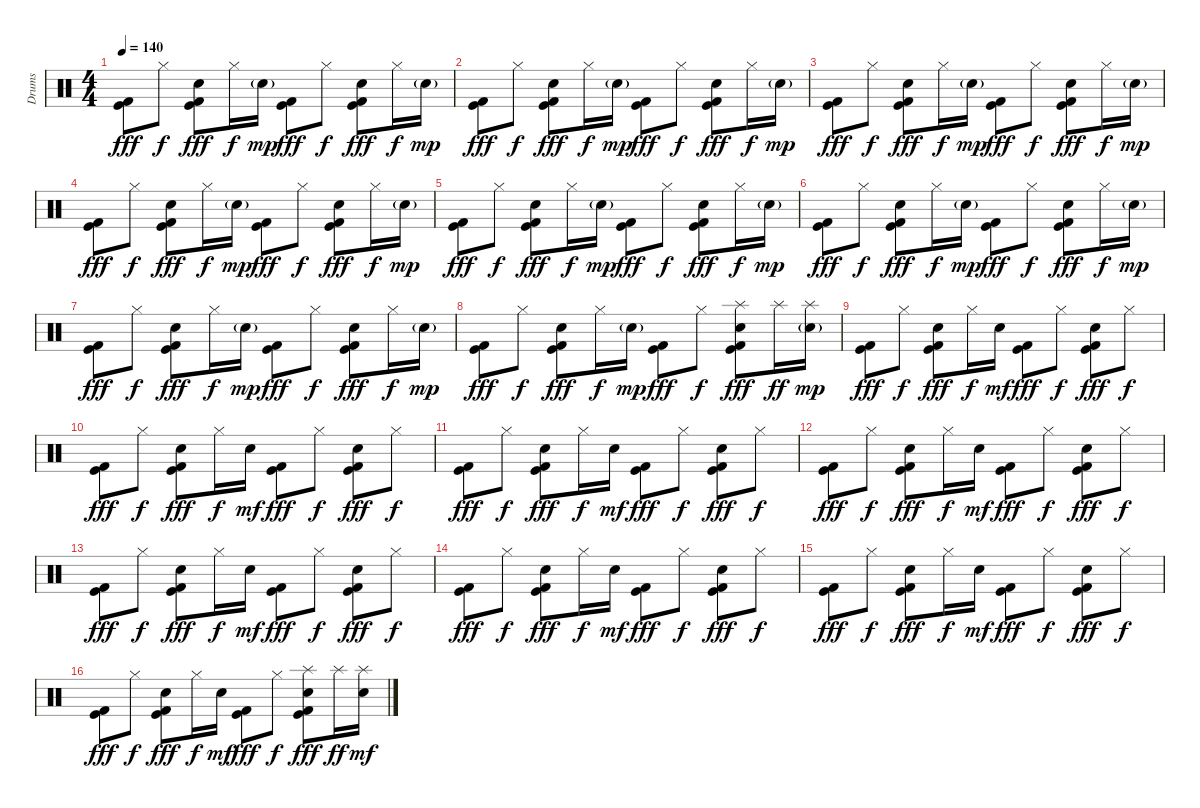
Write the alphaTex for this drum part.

\track ("Drums" "Drums") {instrument percussion}
\staff {score}
\articulation defaults
\ts (4 4)
\tempo 140
\clef neutral
\ks c
("Kick (hit) 2" "Kick (hit)").8{dy fff} "Hi-Hat (closed)".8{dy f} ("Hand Clap (hit)" "Kick (hit) 2" "Kick (hit)").8{dy fff} "Hi-Hat (closed)".16{dy f} "Hand Clap (hit)"{g}.16{dy mp} ("Kick (hit) 2" "Kick (hit)").8{dy fff} "Hi-Hat (closed)".8{dy f} ("Hand Clap (hit)" "Kick (hit) 2" "Kick (hit)").8{dy fff} "Hi-Hat (closed)".16{dy f} "Hand Clap (hit)"{g}.16{dy mp} |
("Kick (hit) 2" "Kick (hit)").8{dy fff} "Hi-Hat (closed)".8{dy f} ("Hand Clap (hit)" "Kick (hit) 2" "Kick (hit)").8{dy fff} "Hi-Hat (closed)".16{dy f} "Hand Clap (hit)"{g}.16{dy mp} ("Kick (hit) 2" "Kick (hit)").8{dy fff} "Hi-Hat (closed)".8{dy f} ("Hand Clap (hit)" "Kick (hit) 2" "Kick (hit)").8{dy fff} "Hi-Hat (closed)".16{dy f} "Hand Clap (hit)"{g}.16{dy mp} |
("Kick (hit) 2" "Kick (hit)").8{dy fff} "Hi-Hat (closed)".8{dy f} ("Hand Clap (hit)" "Kick (hit) 2" "Kick (hit)").8{dy fff} "Hi-Hat (closed)".16{dy f} "Hand Clap (hit)"{g}.16{dy mp} ("Kick (hit) 2" "Kick (hit)").8{dy fff} "Hi-Hat (closed)".8{dy f} ("Hand Clap (hit)" "Kick (hit) 2" "Kick (hit)").8{dy fff} "Hi-Hat (closed)".16{dy f} "Hand Clap (hit)"{g}.16{dy mp} |
("Kick (hit) 2" "Kick (hit)").8{dy fff} "Hi-Hat (closed)".8{dy f} ("Hand Clap (hit)" "Kick (hit) 2" "Kick (hit)").8{dy fff} "Hi-Hat (closed)".16{dy f} "Hand Clap (hit)"{g}.16{dy mp} ("Kick (hit) 2" "Kick (hit)").8{dy fff} "Hi-Hat (closed)".8{dy f} ("Hand Clap (hit)" "Kick (hit) 2" "Kick (hit)").8{dy fff} "Hi-Hat (closed)".16{dy f} "Hand Clap (hit)"{g}.16{dy mp} |
("Kick (hit) 2" "Kick (hit)").8{dy fff} "Hi-Hat (closed)".8{dy f} ("Hand Clap (hit)" "Kick (hit) 2" "Kick (hit)").8{dy fff} "Hi-Hat (closed)".16{dy f} "Hand Clap (hit)"{g}.16{dy mp} ("Kick (hit) 2" "Kick (hit)").8{dy fff} "Hi-Hat (closed)".8{dy f} ("Hand Clap (hit)" "Kick (hit) 2" "Kick (hit)").8{dy fff} "Hi-Hat (closed)".16{dy f} "Hand Clap (hit)"{g}.16{dy mp} |
("Kick (hit) 2" "Kick (hit)").8{dy fff} "Hi-Hat (closed)".8{dy f} ("Hand Clap (hit)" "Kick (hit) 2" "Kick (hit)").8{dy fff} "Hi-Hat (closed)".16{dy f} "Hand Clap (hit)"{g}.16{dy mp} ("Kick (hit) 2" "Kick (hit)").8{dy fff} "Hi-Hat (closed)".8{dy f} ("Hand Clap (hit)" "Kick (hit) 2" "Kick (hit)").8{dy fff} "Hi-Hat (closed)".16{dy f} "Hand Clap (hit)"{g}.16{dy mp} |
("Kick (hit) 2" "Kick (hit)").8{dy fff} "Hi-Hat (closed)".8{dy f} ("Hand Clap (hit)" "Kick (hit) 2" "Kick (hit)").8{dy fff} "Hi-Hat (closed)".16{dy f} "Hand Clap (hit)"{g}.16{dy mp} ("Kick (hit) 2" "Kick (hit)").8{dy fff} "Hi-Hat (closed)".8{dy f} ("Hand Clap (hit)" "Kick (hit) 2" "Kick (hit)").8{dy fff} "Hi-Hat (closed)".16{dy f} "Hand Clap (hit)"{g}.16{dy mp} |
("Kick (hit) 2" "Kick (hit)").8{dy fff} "Hi-Hat (closed)".8{dy f} ("Hand Clap (hit)" "Kick (hit) 2" "Kick (hit)").8{dy fff} "Hi-Hat (closed)".16{dy f} "Hand Clap (hit)"{g}.16{dy mp} ("Kick (hit) 2" "Kick (hit)").8{dy fff} "Hi-Hat (closed)".8{dy f} ("Splash (hit)" "Hand Clap (hit)" "Kick (hit) 2" "Kick (hit)").8{dy fff} "Splash (hit)".16{dy ff} ("Splash (hit)" "Hand Clap (hit)"{g}).16{dy mp} |
("Kick (hit) 2" "Kick (hit)").8{dy fff} "Hi-Hat (closed)".8{dy f} ("Hand Clap (hit)" "Kick (hit) 2" "Kick (hit)").8{dy fff} "Hi-Hat (closed)".16{dy f} "Hand Clap (hit)".16{dy mf} ("Kick (hit) 2" "Kick (hit)").8{dy fff} "Hi-Hat (closed)".8{dy f} ("Hand Clap (hit)" "Kick (hit) 2" "Kick (hit)").8{dy fff} "Hi-Hat (closed)".8{dy f} |
("Kick (hit) 2" "Kick (hit)").8{dy fff} "Hi-Hat (closed)".8{dy f} ("Hand Clap (hit)" "Kick (hit) 2" "Kick (hit)").8{dy fff} "Hi-Hat (closed)".16{dy f} "Hand Clap (hit)".16{dy mf} ("Kick (hit) 2" "Kick (hit)").8{dy fff} "Hi-Hat (closed)".8{dy f} ("Hand Clap (hit)" "Kick (hit) 2" "Kick (hit)").8{dy fff} "Hi-Hat (closed)".8{dy f} |
("Kick (hit) 2" "Kick (hit)").8{dy fff} "Hi-Hat (closed)".8{dy f} ("Hand Clap (hit)" "Kick (hit) 2" "Kick (hit)").8{dy fff} "Hi-Hat (closed)".16{dy f} "Hand Clap (hit)".16{dy mf} ("Kick (hit) 2" "Kick (hit)").8{dy fff} "Hi-Hat (closed)".8{dy f} ("Hand Clap (hit)" "Kick (hit) 2" "Kick (hit)").8{dy fff} "Hi-Hat (closed)".8{dy f} |
("Kick (hit) 2" "Kick (hit)").8{dy fff} "Hi-Hat (closed)".8{dy f} ("Hand Clap (hit)" "Kick (hit) 2" "Kick (hit)").8{dy fff} "Hi-Hat (closed)".16{dy f} "Hand Clap (hit)".16{dy mf} ("Kick (hit) 2" "Kick (hit)").8{dy fff} "Hi-Hat (closed)".8{dy f} ("Hand Clap (hit)" "Kick (hit) 2" "Kick (hit)").8{dy fff} "Hi-Hat (closed)".8{dy f} |
("Kick (hit) 2" "Kick (hit)").8{dy fff} "Hi-Hat (closed)".8{dy f} ("Hand Clap (hit)" "Kick (hit) 2" "Kick (hit)").8{dy fff} "Hi-Hat (closed)".16{dy f} "Hand Clap (hit)".16{dy mf} ("Kick (hit) 2" "Kick (hit)").8{dy fff} "Hi-Hat (closed)".8{dy f} ("Hand Clap (hit)" "Kick (hit) 2" "Kick (hit)").8{dy fff} "Hi-Hat (closed)".8{dy f} |
("Kick (hit) 2" "Kick (hit)").8{dy fff} "Hi-Hat (closed)".8{dy f} ("Hand Clap (hit)" "Kick (hit) 2" "Kick (hit)").8{dy fff} "Hi-Hat (closed)".16{dy f} "Hand Clap (hit)".16{dy mf} ("Kick (hit) 2" "Kick (hit)").8{dy fff} "Hi-Hat (closed)".8{dy f} ("Hand Clap (hit)" "Kick (hit) 2" "Kick (hit)").8{dy fff} "Hi-Hat (closed)".8{dy f} |
("Kick (hit) 2" "Kick (hit)").8{dy fff} "Hi-Hat (closed)".8{dy f} ("Hand Clap (hit)" "Kick (hit) 2" "Kick (hit)").8{dy fff} "Hi-Hat (closed)".16{dy f} "Hand Clap (hit)".16{dy mf} ("Kick (hit) 2" "Kick (hit)").8{dy fff} "Hi-Hat (closed)".8{dy f} ("Hand Clap (hit)" "Kick (hit) 2" "Kick (hit)").8{dy fff} "Hi-Hat (closed)".8{dy f} |
("Kick (hit) 2" "Kick (hit)").8{dy fff} "Hi-Hat (closed)".8{dy f} ("Hand Clap (hit)" "Kick (hit) 2" "Kick (hit)").8{dy fff} "Hi-Hat (closed)".16{dy f} "Hand Clap (hit)".16{dy mf} ("Kick (hit) 2" "Kick (hit)").8{dy fff} "Hi-Hat (closed)".8{dy f} ("Splash (hit)" "Hand Clap (hit)" "Kick (hit) 2" "Kick (hit)").8{dy fff} "Splash (hit)".16{dy ff} ("Splash (hit)" "Hand Clap (hit)").16{dy mf}
